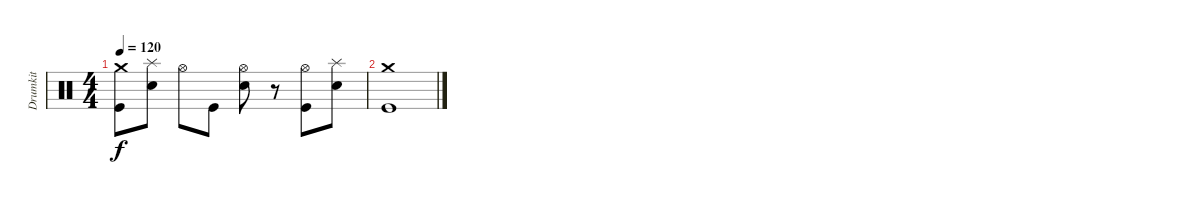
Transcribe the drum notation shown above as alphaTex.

\track ("Drumkit" "Drumkit") {instrument percussion}
\staff {score}
\articulation defaults
\ts (4 4)
\tempo 120
\clef neutral
\ks c
("Crash medium (hit)" "Kick (hit)").8{dy f} ("Splash (hit)" "Snare (hit) 2").8 "Hi-Hat (open)".8 "Kick (hit)".8 ("Hi-Hat (open)" "Snare (hit) 2").8 r.8 ("Hi-Hat (open)" "Kick (hit)").8 ("Snare (hit) 2" "Splash (hit)").8 |
("Crash medium (hit)" "Kick (hit)").1
